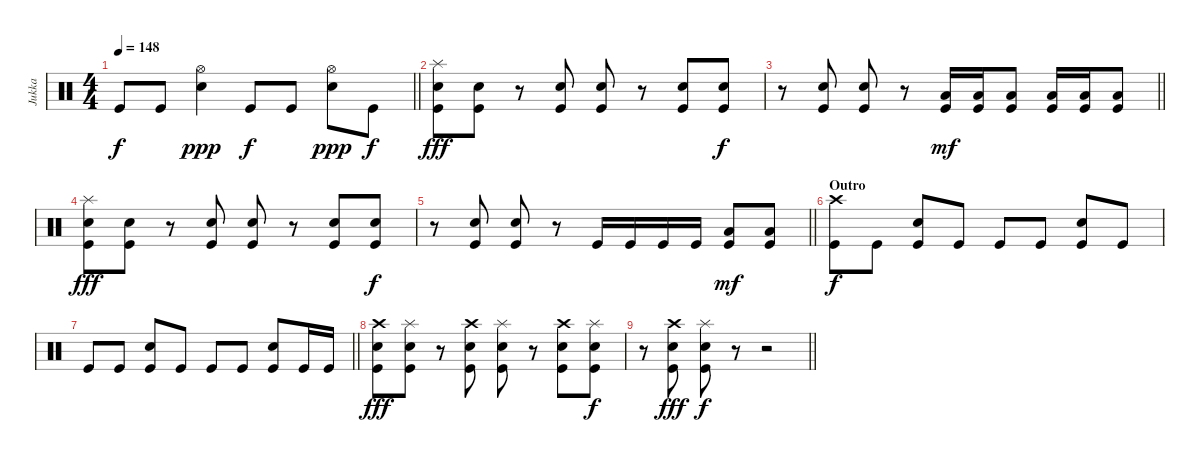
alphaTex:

\track ("Jukka" "Jukka") {instrument percussion}
\staff {score}
\articulation defaults
\ts (4 4)
\tempo 148
\clef neutral
\barLineRight lightlight
\ks c "Kick (hit)".8{dy f} "Kick (hit)".8
("Snare (hit) 2" "Hi-Hat (open)").4{dy ppp} "Kick (hit)".8{dy f} "Kick (hit)".8 ("Snare (hit) 2" "Hi-Hat (open)").8{dy ppp} "Kick (hit)".8{dy f} |
("Kick (hit)" "Snare (hit) 2" "Splash (hit)").8{dy fff} ("Kick (hit)" "Snare (hit) 2").8 r.8 ("Kick (hit)" "Snare (hit) 2").8 ("Kick (hit)" "Snare (hit) 2").8 r.8 ("Kick (hit)" "Snare (hit) 2").8 ("Kick (hit)" "Snare (hit) 2").8{dy f} |
\barLineRight lightlight
r.8 ("Kick (hit)" "Snare (hit) 2").8 ("Kick (hit)" "Snare (hit) 2").8 r.8 ("Kick (hit)" "Low Floor Tom (hit)").16{dy mf} ("Kick (hit)" "Low Floor Tom (hit)").16 ("Kick (hit)" "Low Floor Tom (hit)").8 ("Kick (hit)" "Low Floor Tom (hit)").16 ("Kick (hit)" "Low Floor Tom (hit)").16 ("Kick (hit)" "Low Floor Tom (hit)").8 |
("Kick (hit)" "Snare (hit) 2" "Splash (hit)").8{dy fff} ("Kick (hit)" "Snare (hit) 2").8 r.8 ("Kick (hit)" "Snare (hit) 2").8 ("Kick (hit)" "Snare (hit) 2").8 r.8 ("Kick (hit)" "Snare (hit) 2").8 ("Kick (hit)" "Snare (hit) 2").8{dy f} |
\barLineRight lightlight
r.8 ("Kick (hit)" "Snare (hit) 2").8 ("Kick (hit)" "Snare (hit) 2").8 r.8 "Kick (hit)".16 "Kick (hit)".16 "Kick (hit)".16 "Kick (hit)".16 ("Kick (hit)" "Low Floor Tom (hit)").8{dy mf} ("Kick (hit)" "Low Floor Tom (hit)").8 |
\section ("" "Outro")
("Kick (hit)" "Crash high (hit)").8{dy f} "Kick (hit)".8 ("Kick (hit)" "Snare (hit) 2").8 "Kick (hit)".8 "Kick (hit)".8 "Kick (hit)".8 ("Kick (hit)" "Snare (hit) 2").8 "Kick (hit)".8 |
\barLineRight lightlight "Kick (hit)".8 "Kick (hit)".8
("Kick (hit)" "Snare (hit) 2").8 "Kick (hit)".8 "Kick (hit)".8 "Kick (hit)".8 ("Kick (hit)" "Snare (hit) 2").8 "Kick (hit)".16 "Kick (hit)".16 |
("Kick (hit)" "Snare (hit) 2" "Crash high (hit)").8{dy fff} ("Kick (hit)" "Snare (hit) 2" "Splash (hit)").8 r.8 ("Kick (hit)" "Snare (hit) 2" "Crash high (hit)").8 ("Kick (hit)" "Snare (hit) 2" "Splash (hit)").8 r.8 ("Kick (hit)" "Snare (hit) 2" "Crash high (hit)").8 ("Kick (hit)" "Snare (hit) 2" "Splash (hit)").8{dy f} |
\barLineRight lightlight
r.8 ("Kick (hit)" "Snare (hit) 2" "Crash high (hit)").8{dy fff} ("Kick (hit)" "Snare (hit) 2" "Splash (hit)").8{dy f} r.8 r.2
